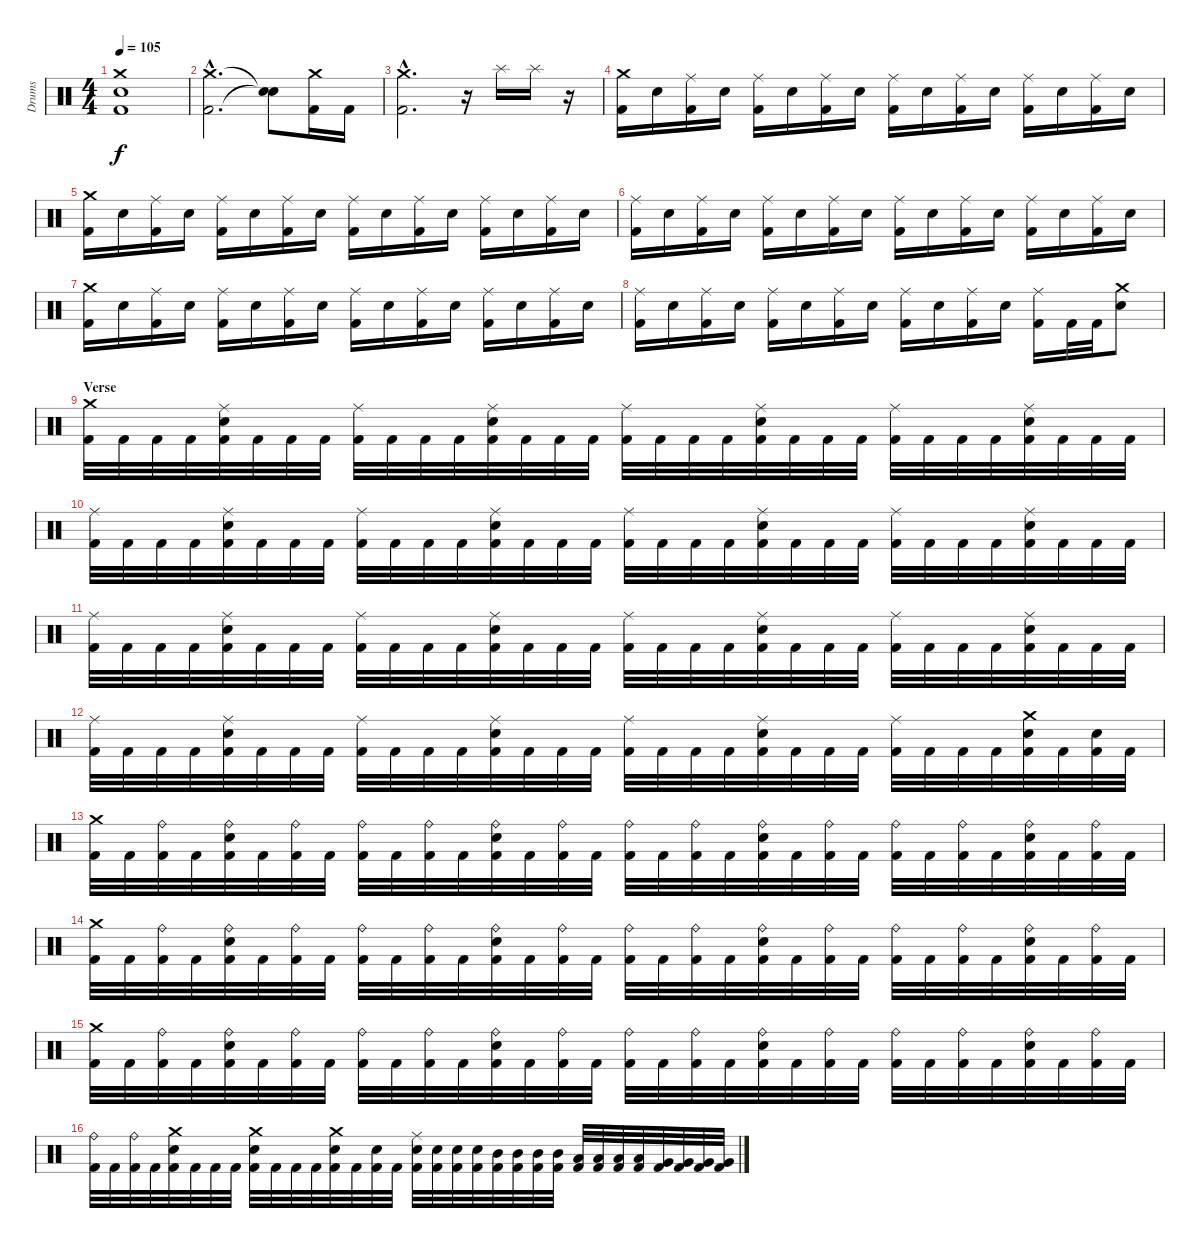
\track ("Drums" "Drums") {instrument percussion}
\staff {score}
\articulation defaults
\ts (4 4)
\tempo 105
\clef neutral
\ks c
("Crash medium (hit)" "Electric Snare (hit)" "Kick (hit) 2").1{dy f} |
("Crash medium (hit)"{hac} "Kick (hit) 2"{hac}).2{d} ("Snare (hit)"{t} "Snare (hit)"{t}).8 ("Crash medium (hit)" "Kick (hit) 2").16 "Kick (hit) 2".16 |
("Crash medium (hit)"{hac} "Kick (hit) 2"{hac}).2{d} r.16 "Splash (hit)".16 "Splash (hit)".16 r.16 |
("Crash medium (hit)" "Kick (hit) 2").16 "Electric Snare (hit)".16 ("Ride (middle)" "Kick (hit) 2").16 "Electric Snare (hit)".16 ("Ride (middle)" "Kick (hit) 2").16 "Electric Snare (hit)".16 ("Ride (middle)" "Kick (hit) 2").16 "Electric Snare (hit)".16 ("Ride (middle)" "Kick (hit) 2").16 "Electric Snare (hit)".16 ("Ride (middle)" "Kick (hit) 2").16 "Electric Snare (hit)".16 ("Ride (middle)" "Kick (hit) 2").16 "Electric Snare (hit)".16 ("Ride (middle)" "Kick (hit) 2").16 "Electric Snare (hit)".16 |
("Crash medium (hit)" "Kick (hit) 2").16 "Electric Snare (hit)".16 ("Ride (middle)" "Kick (hit) 2").16 "Electric Snare (hit)".16 ("Ride (middle)" "Kick (hit) 2").16 "Electric Snare (hit)".16 ("Ride (middle)" "Kick (hit) 2").16 "Electric Snare (hit)".16 ("Ride (middle)" "Kick (hit) 2").16 "Electric Snare (hit)".16 ("Ride (middle)" "Kick (hit) 2").16 "Electric Snare (hit)".16 ("Ride (middle)" "Kick (hit) 2").16 "Electric Snare (hit)".16 ("Ride (middle)" "Kick (hit) 2").16 "Electric Snare (hit)".16 |
("Ride (middle)" "Kick (hit) 2").16 "Electric Snare (hit)".16 ("Ride (middle)" "Kick (hit) 2").16 "Electric Snare (hit)".16 ("Ride (middle)" "Kick (hit) 2").16 "Electric Snare (hit)".16 ("Ride (middle)" "Kick (hit) 2").16 "Electric Snare (hit)".16 ("Ride (middle)" "Kick (hit) 2").16 "Electric Snare (hit)".16 ("Ride (middle)" "Kick (hit) 2").16 "Electric Snare (hit)".16 ("Ride (middle)" "Kick (hit) 2").16 "Electric Snare (hit)".16 ("Ride (middle)" "Kick (hit) 2").16 "Electric Snare (hit)".16 |
("Crash medium (hit)" "Kick (hit) 2").16 "Electric Snare (hit)".16 ("Ride (middle)" "Kick (hit) 2").16 "Electric Snare (hit)".16 ("Ride (middle)" "Kick (hit) 2").16 "Electric Snare (hit)".16 ("Ride (middle)" "Kick (hit) 2").16 "Electric Snare (hit)".16 ("Ride (middle)" "Kick (hit) 2").16 "Electric Snare (hit)".16 ("Ride (middle)" "Kick (hit) 2").16 "Electric Snare (hit)".16 ("Ride (middle)" "Kick (hit) 2").16 "Electric Snare (hit)".16 ("Ride (middle)" "Kick (hit) 2").16 "Electric Snare (hit)".16 |
("Ride (middle)" "Kick (hit) 2").16 "Electric Snare (hit)".16 ("Ride (middle)" "Kick (hit) 2").16 "Electric Snare (hit)".16 ("Ride (middle)" "Kick (hit) 2").16 "Electric Snare (hit)".16 ("Ride (middle)" "Kick (hit) 2").16 "Electric Snare (hit)".16 ("Ride (middle)" "Kick (hit) 2").16 "Electric Snare (hit)".16 ("Ride (middle)" "Kick (hit) 2").16 "Electric Snare (hit)".16 ("Ride (middle)" "Kick (hit) 2").16 "Kick (hit) 2".32 "Kick (hit) 2".32 ("Crash medium (hit)" "Electric Snare (hit)").8 |
\section ("" "Verse")
("Crash medium (hit)" "Kick (hit) 2").32 "Kick (hit) 2".32 "Kick (hit) 2".32 "Kick (hit) 2".32 ("Ride (middle)" "Electric Snare (hit)" "Kick (hit) 2").32 "Kick (hit) 2".32 "Kick (hit) 2".32 "Kick (hit) 2".32 ("Ride (middle)" "Kick (hit) 2").32 "Kick (hit) 2".32 "Kick (hit) 2".32 "Kick (hit) 2".32 ("Ride (middle)" "Electric Snare (hit)" "Kick (hit) 2").32 "Kick (hit) 2".32 "Kick (hit) 2".32 "Kick (hit) 2".32 ("Ride (middle)" "Kick (hit) 2").32 "Kick (hit) 2".32 "Kick (hit) 2".32 "Kick (hit) 2".32 ("Ride (middle)" "Electric Snare (hit)" "Kick (hit) 2").32 "Kick (hit) 2".32 "Kick (hit) 2".32 "Kick (hit) 2".32 ("Ride (middle)" "Kick (hit) 2").32 "Kick (hit) 2".32 "Kick (hit) 2".32 "Kick (hit) 2".32 ("Ride (middle)" "Electric Snare (hit)" "Kick (hit) 2").32 "Kick (hit) 2".32 "Kick (hit) 2".32 "Kick (hit) 2".32 |
("Ride (middle)" "Kick (hit) 2").32 "Kick (hit) 2".32 "Kick (hit) 2".32 "Kick (hit) 2".32 ("Ride (middle)" "Electric Snare (hit)" "Kick (hit) 2").32 "Kick (hit) 2".32 "Kick (hit) 2".32 "Kick (hit) 2".32 ("Ride (middle)" "Kick (hit) 2").32 "Kick (hit) 2".32 "Kick (hit) 2".32 "Kick (hit) 2".32 ("Ride (middle)" "Electric Snare (hit)" "Kick (hit) 2").32 "Kick (hit) 2".32 "Kick (hit) 2".32 "Kick (hit) 2".32 ("Ride (middle)" "Kick (hit) 2").32 "Kick (hit) 2".32 "Kick (hit) 2".32 "Kick (hit) 2".32 ("Ride (middle)" "Electric Snare (hit)" "Kick (hit) 2").32 "Kick (hit) 2".32 "Kick (hit) 2".32 "Kick (hit) 2".32 ("Ride (middle)" "Kick (hit) 2").32 "Kick (hit) 2".32 "Kick (hit) 2".32 "Kick (hit) 2".32 ("Ride (middle)" "Electric Snare (hit)" "Kick (hit) 2").32 "Kick (hit) 2".32 "Kick (hit) 2".32 "Kick (hit) 2".32 |
("Ride (middle)" "Kick (hit) 2").32 "Kick (hit) 2".32 "Kick (hit) 2".32 "Kick (hit) 2".32 ("Ride (middle)" "Electric Snare (hit)" "Kick (hit) 2").32 "Kick (hit) 2".32 "Kick (hit) 2".32 "Kick (hit) 2".32 ("Ride (middle)" "Kick (hit) 2").32 "Kick (hit) 2".32 "Kick (hit) 2".32 "Kick (hit) 2".32 ("Ride (middle)" "Electric Snare (hit)" "Kick (hit) 2").32 "Kick (hit) 2".32 "Kick (hit) 2".32 "Kick (hit) 2".32 ("Ride (middle)" "Kick (hit) 2").32 "Kick (hit) 2".32 "Kick (hit) 2".32 "Kick (hit) 2".32 ("Ride (middle)" "Electric Snare (hit)" "Kick (hit) 2").32 "Kick (hit) 2".32 "Kick (hit) 2".32 "Kick (hit) 2".32 ("Ride (middle)" "Kick (hit) 2").32 "Kick (hit) 2".32 "Kick (hit) 2".32 "Kick (hit) 2".32 ("Ride (middle)" "Electric Snare (hit)" "Kick (hit) 2").32 "Kick (hit) 2".32 "Kick (hit) 2".32 "Kick (hit) 2".32 |
("Ride (middle)" "Kick (hit) 2").32 "Kick (hit) 2".32 "Kick (hit) 2".32 "Kick (hit) 2".32 ("Ride (middle)" "Electric Snare (hit)" "Kick (hit) 2").32 "Kick (hit) 2".32 "Kick (hit) 2".32 "Kick (hit) 2".32 ("Ride (middle)" "Kick (hit) 2").32 "Kick (hit) 2".32 "Kick (hit) 2".32 "Kick (hit) 2".32 ("Ride (middle)" "Electric Snare (hit)" "Kick (hit) 2").32 "Kick (hit) 2".32 "Kick (hit) 2".32 "Kick (hit) 2".32 ("Ride (middle)" "Kick (hit) 2").32 "Kick (hit) 2".32 "Kick (hit) 2".32 "Kick (hit) 2".32 ("Ride (middle)" "Electric Snare (hit)" "Kick (hit) 2").32 "Kick (hit) 2".32 "Kick (hit) 2".32 "Kick (hit) 2".32 ("Ride (middle)" "Kick (hit) 2").32 "Kick (hit) 2".32 "Kick (hit) 2".32 "Kick (hit) 2".32 ("Crash medium (hit)" "Electric Snare (hit)" "Kick (hit) 2").32 "Kick (hit) 2".32 ("Electric Snare (hit)" "Kick (hit) 2").32 "Kick (hit) 2".32 |
("Crash medium (hit)" "Kick (hit) 2").32 "Kick (hit) 2".32 ("Ride (bell)" "Kick (hit) 2").32 "Kick (hit) 2".32 ("Ride (bell)" "Electric Snare (hit)" "Kick (hit) 2").32 "Kick (hit) 2".32 ("Ride (bell)" "Kick (hit) 2").32 "Kick (hit) 2".32 ("Ride (bell)" "Kick (hit) 2").32 "Kick (hit) 2".32 ("Ride (bell)" "Kick (hit) 2").32 "Kick (hit) 2".32 ("Ride (bell)" "Electric Snare (hit)" "Kick (hit) 2").32 "Kick (hit) 2".32 ("Ride (bell)" "Kick (hit) 2").32 "Kick (hit) 2".32 ("Ride (bell)" "Kick (hit) 2").32 "Kick (hit) 2".32 ("Ride (bell)" "Kick (hit) 2").32 "Kick (hit) 2".32 ("Ride (bell)" "Electric Snare (hit)" "Kick (hit) 2").32 "Kick (hit) 2".32 ("Ride (bell)" "Kick (hit) 2").32 "Kick (hit) 2".32 ("Ride (bell)" "Kick (hit) 2").32 "Kick (hit) 2".32 ("Ride (bell)" "Kick (hit) 2").32 "Kick (hit) 2".32 ("Ride (bell)" "Electric Snare (hit)" "Kick (hit) 2").32 "Kick (hit) 2".32 ("Ride (bell)" "Kick (hit) 2").32 "Kick (hit) 2".32 |
("Crash medium (hit)" "Kick (hit) 2").32 "Kick (hit) 2".32 ("Ride (bell)" "Kick (hit) 2").32 "Kick (hit) 2".32 ("Ride (bell)" "Electric Snare (hit)" "Kick (hit) 2").32 "Kick (hit) 2".32 ("Ride (bell)" "Kick (hit) 2").32 "Kick (hit) 2".32 ("Ride (bell)" "Kick (hit) 2").32 "Kick (hit) 2".32 ("Ride (bell)" "Kick (hit) 2").32 "Kick (hit) 2".32 ("Ride (bell)" "Electric Snare (hit)" "Kick (hit) 2").32 "Kick (hit) 2".32 ("Ride (bell)" "Kick (hit) 2").32 "Kick (hit) 2".32 ("Ride (bell)" "Kick (hit) 2").32 "Kick (hit) 2".32 ("Ride (bell)" "Kick (hit) 2").32 "Kick (hit) 2".32 ("Ride (bell)" "Electric Snare (hit)" "Kick (hit) 2").32 "Kick (hit) 2".32 ("Ride (bell)" "Kick (hit) 2").32 "Kick (hit) 2".32 ("Ride (bell)" "Kick (hit) 2").32 "Kick (hit) 2".32 ("Ride (bell)" "Kick (hit) 2").32 "Kick (hit) 2".32 ("Ride (bell)" "Electric Snare (hit)" "Kick (hit) 2").32 "Kick (hit) 2".32 ("Ride (bell)" "Kick (hit) 2").32 "Kick (hit) 2".32 |
("Crash medium (hit)" "Kick (hit) 2").32 "Kick (hit) 2".32 ("Ride (bell)" "Kick (hit) 2").32 "Kick (hit) 2".32 ("Ride (bell)" "Electric Snare (hit)" "Kick (hit) 2").32 "Kick (hit) 2".32 ("Ride (bell)" "Kick (hit) 2").32 "Kick (hit) 2".32 ("Ride (bell)" "Kick (hit) 2").32 "Kick (hit) 2".32 ("Ride (bell)" "Kick (hit) 2").32 "Kick (hit) 2".32 ("Ride (bell)" "Electric Snare (hit)" "Kick (hit) 2").32 "Kick (hit) 2".32 ("Ride (bell)" "Kick (hit) 2").32 "Kick (hit) 2".32 ("Ride (bell)" "Kick (hit) 2").32 "Kick (hit) 2".32 ("Ride (bell)" "Kick (hit) 2").32 "Kick (hit) 2".32 ("Ride (bell)" "Electric Snare (hit)" "Kick (hit) 2").32 "Kick (hit) 2".32 ("Ride (bell)" "Kick (hit) 2").32 "Kick (hit) 2".32 ("Ride (bell)" "Kick (hit) 2").32 "Kick (hit) 2".32 ("Ride (bell)" "Kick (hit) 2").32 "Kick (hit) 2".32 ("Ride (bell)" "Electric Snare (hit)" "Kick (hit) 2").32 "Kick (hit) 2".32 ("Ride (bell)" "Kick (hit) 2").32 "Kick (hit) 2".32 |
("Ride (bell)" "Kick (hit) 2").32 "Kick (hit) 2".32 ("Ride (bell)" "Kick (hit) 2").32 "Kick (hit) 2".32 ("Crash medium (hit)" "Electric Snare (hit)" "Kick (hit) 2").32 "Kick (hit) 2".32 "Kick (hit) 2".32 "Kick (hit) 2".32 ("Crash medium (hit)" "Electric Snare (hit)" "Kick (hit) 2").32 "Kick (hit) 2".32 "Kick (hit) 2".32 "Kick (hit) 2".32 ("Crash medium (hit)" "Electric Snare (hit)" "Kick (hit) 2").32 "Kick (hit) 2".32 ("Electric Snare (hit)" "Kick (hit) 2").32 "Kick (hit) 2".32 ("Ride (middle)" "Electric Snare (hit)" "Kick (hit) 2").32 ("Electric Snare (hit)" "Kick (hit) 2").32 ("Electric Snare (hit)" "Kick (hit) 2").32 ("Electric Snare (hit)" "Kick (hit) 2").32 ("Mid Tom (hit)" "Kick (hit) 2").32 ("Mid Tom (hit)" "Kick (hit) 2").32 ("Mid Tom (hit)" "Kick (hit) 2").32 ("Mid Tom (hit)" "Kick (hit) 2").32 ("Low Tom (hit)" "Kick (hit) 2").32 ("Low Tom (hit)" "Kick (hit) 2").32 ("Low Tom (hit)" "Kick (hit) 2").32 ("Low Tom (hit)" "Kick (hit) 2").32 ("Very Low Tom (hit)" "Kick (hit) 2").32 ("Very Low Tom (hit)" "Kick (hit) 2").32 ("Very Low Tom (hit)" "Kick (hit) 2").32 ("Very Low Tom (hit)" "Kick (hit) 2").32
